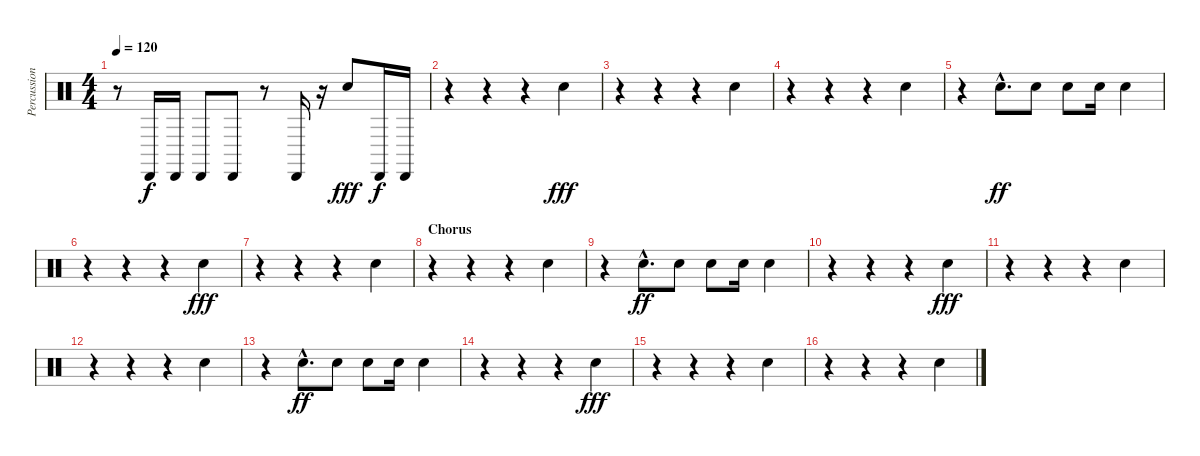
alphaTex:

\track ("Percussion" "Percussion") {instrument percussion}
\staff {score}
\articulation defaults
\ts (4 4)
\tempo 120
\clef neutral
\ks c
r.8{dy f} "Cabasa (hit)".16 "Cabasa (hit)".16 "Cabasa (hit)".8 "Cabasa (hit)".8 r.8 "Cabasa (hit)".16 r.16 "Hand Clap (hit)".8{dy fff} "Cabasa (hit)".16{dy f} "Cabasa (hit)".16 |
r.4 r.4 r.4 "Hand Clap (hit)".4{dy fff} |
r.4 r.4 r.4 "Hand Clap (hit)".4 |
r.4 r.4 r.4 "Hand Clap (hit)".4 |
r.4 "Hand Clap (hit)"{hac}.8{d dy ff} "Hand Clap (hit)".8 "Hand Clap (hit)".8 "Hand Clap (hit)".16 "Hand Clap (hit)".4 |
r.4 r.4 r.4 "Hand Clap (hit)".4{dy fff} |
r.4 r.4 r.4 "Hand Clap (hit)".4 |
\section ("" "Chorus")
r.4 r.4 r.4 "Hand Clap (hit)".4 |
r.4 "Hand Clap (hit)"{hac}.8{d dy ff} "Hand Clap (hit)".8 "Hand Clap (hit)".8 "Hand Clap (hit)".16 "Hand Clap (hit)".4 |
r.4 r.4 r.4 "Hand Clap (hit)".4{dy fff} |
r.4 r.4 r.4 "Hand Clap (hit)".4 |
r.4 r.4 r.4 "Hand Clap (hit)".4 |
r.4 "Hand Clap (hit)"{hac}.8{d dy ff} "Hand Clap (hit)".8 "Hand Clap (hit)".8 "Hand Clap (hit)".16 "Hand Clap (hit)".4 |
r.4 r.4 r.4 "Hand Clap (hit)".4{dy fff} |
r.4 r.4 r.4 "Hand Clap (hit)".4 |
r.4 r.4 r.4 "Hand Clap (hit)".4
